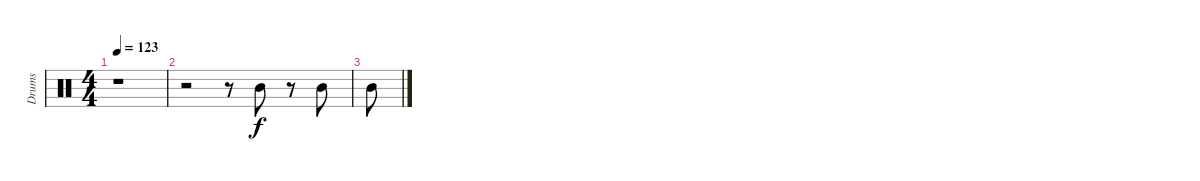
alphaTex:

\track ("Drums" "Drums") {instrument percussion}
\staff {score}
\articulation defaults
\ts (4 4)
\tempo 123
\clef neutral
\ks c
r.1{dy f} |
r.2 r.8 "Mid Tom (hit)".8 r.8 "Mid Tom (hit)".8 |
"Mid Tom (hit)".8
